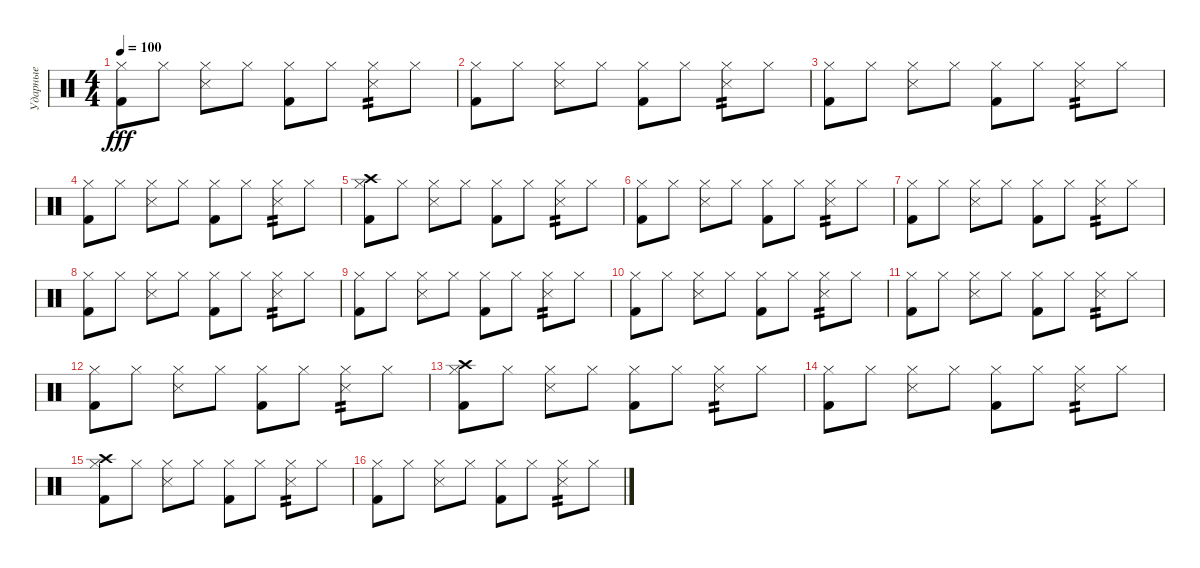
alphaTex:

\track ("Ударные" "Ударные") {instrument percussion}
\staff {score}
\articulation defaults
\ts (4 4)
\tempo 100
\clef neutral
\ks c
("Hi-Hat (closed)" "Kick (hit) 2").8{dy fff} "Hi-Hat (closed)".8 ("Hi-Hat (closed)" "Snare (side stick) 3").8 "Hi-Hat (closed)".8 ("Hi-Hat (closed)" "Kick (hit) 2").8 "Hi-Hat (closed)".8 ("Hi-Hat (closed)" "Snare (side stick) 3").8{tp 2} "Hi-Hat (closed)".8 |
("Hi-Hat (closed)" "Kick (hit) 2").8 "Hi-Hat (closed)".8 ("Hi-Hat (closed)" "Snare (side stick) 3").8 "Hi-Hat (closed)".8 ("Hi-Hat (closed)" "Kick (hit) 2").8 "Hi-Hat (closed)".8 ("Hi-Hat (closed)" "Snare (side stick) 3").8{tp 2} "Hi-Hat (closed)".8 |
("Hi-Hat (closed)" "Kick (hit) 2").8 "Hi-Hat (closed)".8 ("Hi-Hat (closed)" "Snare (side stick) 3").8 "Hi-Hat (closed)".8 ("Hi-Hat (closed)" "Kick (hit) 2").8 "Hi-Hat (closed)".8 ("Hi-Hat (closed)" "Snare (side stick) 3").8{tp 2} "Hi-Hat (closed)".8 |
("Hi-Hat (closed)" "Kick (hit) 2").8 "Hi-Hat (closed)".8 ("Hi-Hat (closed)" "Snare (side stick) 3").8 "Hi-Hat (closed)".8 ("Hi-Hat (closed)" "Kick (hit) 2").8 "Hi-Hat (closed)".8 ("Hi-Hat (closed)" "Snare (side stick) 3").8{tp 2} "Hi-Hat (closed)".8 |
("Hi-Hat (closed)" "Kick (hit) 2" "Crash high (hit)").8 "Hi-Hat (closed)".8 ("Hi-Hat (closed)" "Snare (side stick) 3").8 "Hi-Hat (closed)".8 ("Hi-Hat (closed)" "Kick (hit) 2").8 "Hi-Hat (closed)".8 ("Hi-Hat (closed)" "Snare (side stick) 3").8{tp 2} "Hi-Hat (closed)".8 |
("Hi-Hat (closed)" "Kick (hit) 2").8 "Hi-Hat (closed)".8 ("Hi-Hat (closed)" "Snare (side stick) 3").8 "Hi-Hat (closed)".8 ("Hi-Hat (closed)" "Kick (hit) 2").8 "Hi-Hat (closed)".8 ("Hi-Hat (closed)" "Snare (side stick) 3").8{tp 2} "Hi-Hat (closed)".8 |
("Hi-Hat (closed)" "Kick (hit) 2").8 "Hi-Hat (closed)".8 ("Hi-Hat (closed)" "Snare (side stick) 3").8 "Hi-Hat (closed)".8 ("Hi-Hat (closed)" "Kick (hit) 2").8 "Hi-Hat (closed)".8 ("Hi-Hat (closed)" "Snare (side stick) 3").8{tp 2} "Hi-Hat (closed)".8 |
("Hi-Hat (closed)" "Kick (hit) 2").8 "Hi-Hat (closed)".8 ("Hi-Hat (closed)" "Snare (side stick) 3").8 "Hi-Hat (closed)".8 ("Hi-Hat (closed)" "Kick (hit) 2").8 "Hi-Hat (closed)".8 ("Hi-Hat (closed)" "Snare (side stick) 3").8{tp 2} "Hi-Hat (closed)".8 |
("Hi-Hat (closed)" "Kick (hit) 2").8 "Hi-Hat (closed)".8 ("Hi-Hat (closed)" "Snare (side stick) 3").8 "Hi-Hat (closed)".8 ("Hi-Hat (closed)" "Kick (hit) 2").8 "Hi-Hat (closed)".8 ("Hi-Hat (closed)" "Snare (side stick) 3").8{tp 2} "Hi-Hat (closed)".8 |
("Hi-Hat (closed)" "Kick (hit) 2").8 "Hi-Hat (closed)".8 ("Hi-Hat (closed)" "Snare (side stick) 3").8 "Hi-Hat (closed)".8 ("Hi-Hat (closed)" "Kick (hit) 2").8 "Hi-Hat (closed)".8 ("Hi-Hat (closed)" "Snare (side stick) 3").8{tp 2} "Hi-Hat (closed)".8 |
("Hi-Hat (closed)" "Kick (hit) 2").8 "Hi-Hat (closed)".8 ("Hi-Hat (closed)" "Snare (side stick) 3").8 "Hi-Hat (closed)".8 ("Hi-Hat (closed)" "Kick (hit) 2").8 "Hi-Hat (closed)".8 ("Hi-Hat (closed)" "Snare (side stick) 3").8{tp 2} "Hi-Hat (closed)".8 |
("Hi-Hat (closed)" "Kick (hit) 2").8 "Hi-Hat (closed)".8 ("Hi-Hat (closed)" "Snare (side stick) 3").8 "Hi-Hat (closed)".8 ("Hi-Hat (closed)" "Kick (hit) 2").8 "Hi-Hat (closed)".8 ("Hi-Hat (closed)" "Snare (side stick) 3").8{tp 2} "Hi-Hat (closed)".8 |
("Hi-Hat (closed)" "Kick (hit) 2" "Crash high (hit)").8 "Hi-Hat (closed)".8 ("Hi-Hat (closed)" "Snare (side stick) 3").8 "Hi-Hat (closed)".8 ("Hi-Hat (closed)" "Kick (hit) 2").8 "Hi-Hat (closed)".8 ("Hi-Hat (closed)" "Snare (side stick) 3").8{tp 2} "Hi-Hat (closed)".8 |
("Hi-Hat (closed)" "Kick (hit) 2").8 "Hi-Hat (closed)".8 ("Hi-Hat (closed)" "Snare (side stick) 3").8 "Hi-Hat (closed)".8 ("Hi-Hat (closed)" "Kick (hit) 2").8 "Hi-Hat (closed)".8 ("Hi-Hat (closed)" "Snare (side stick) 3").8{tp 2} "Hi-Hat (closed)".8 |
("Hi-Hat (closed)" "Kick (hit) 2" "Crash high (hit)").8 "Hi-Hat (closed)".8 ("Hi-Hat (closed)" "Snare (side stick) 3").8 "Hi-Hat (closed)".8 ("Hi-Hat (closed)" "Kick (hit) 2").8 "Hi-Hat (closed)".8 ("Hi-Hat (closed)" "Snare (side stick) 3").8{tp 2} "Hi-Hat (closed)".8 |
("Hi-Hat (closed)" "Kick (hit) 2").8 "Hi-Hat (closed)".8 ("Hi-Hat (closed)" "Snare (side stick) 3").8 "Hi-Hat (closed)".8 ("Hi-Hat (closed)" "Kick (hit) 2").8 "Hi-Hat (closed)".8 ("Hi-Hat (closed)" "Snare (side stick) 3").8{tp 2} "Hi-Hat (closed)".8
